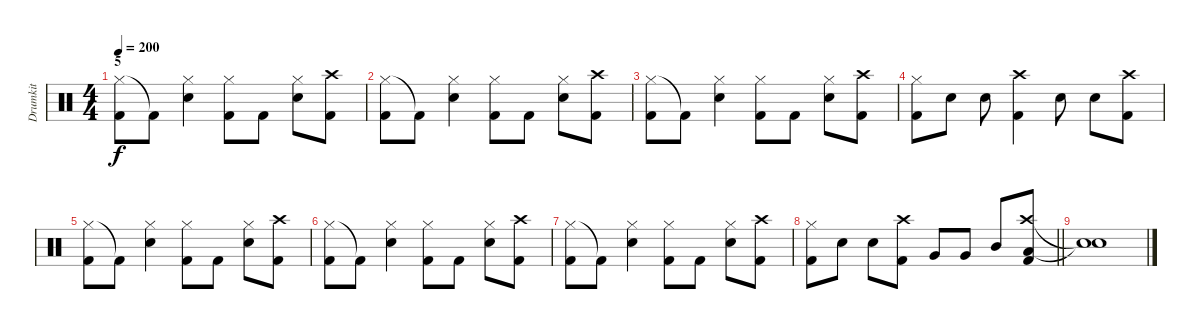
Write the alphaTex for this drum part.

\track ("Drumkit" "Drumkit") {instrument percussion}
\staff {score}
\articulation defaults
\ts (4 4)
\section ("" "5")
\tempo 200
\clef neutral
\ks c
("Hi-Hat (closed)" "Kick (hit) 2").8{dy f} "Kick (hit) 2"{t}.8 ("Hi-Hat (closed)" "Snare (hit) 2").4 ("Hi-Hat (closed)" "Kick (hit) 2").8 "Kick (hit) 2".8 ("Hi-Hat (closed)" "Snare (hit) 2").8 ("Crash high (hit)" "Kick (hit) 2").8 |
("Hi-Hat (closed)" "Kick (hit) 2").8 "Kick (hit) 2"{t}.8 ("Hi-Hat (closed)" "Snare (hit) 2").4 ("Hi-Hat (closed)" "Kick (hit) 2").8 "Kick (hit) 2".8 ("Hi-Hat (closed)" "Snare (hit) 2").8 ("Crash high (hit)" "Kick (hit) 2").8 |
("Hi-Hat (closed)" "Kick (hit) 2").8 "Kick (hit) 2"{t}.8 ("Hi-Hat (closed)" "Snare (hit) 2").4 ("Hi-Hat (closed)" "Kick (hit) 2").8 "Kick (hit) 2".8 ("Hi-Hat (closed)" "Snare (hit) 2").8 ("Crash high (hit)" "Kick (hit) 2").8 |
("Hi-Hat (closed)" "Kick (hit) 2").8 "Snare (hit) 2".8 "Snare (hit) 2".8 ("Crash high (hit)" "Kick (hit) 2").4 "Snare (hit) 2".8 "Snare (hit) 2".8 ("Crash high (hit)" "Kick (hit) 2").8 |
("Hi-Hat (closed)" "Kick (hit) 2").8 "Kick (hit) 2"{t}.8 ("Hi-Hat (closed)" "Snare (hit) 2").4 ("Hi-Hat (closed)" "Kick (hit) 2").8 "Kick (hit) 2".8 ("Hi-Hat (closed)" "Snare (hit) 2").8 ("Crash high (hit)" "Kick (hit) 2").8 |
("Hi-Hat (closed)" "Kick (hit) 2").8 "Kick (hit) 2"{t}.8 ("Hi-Hat (closed)" "Snare (hit) 2").4 ("Hi-Hat (closed)" "Kick (hit) 2").8 "Kick (hit) 2".8 ("Hi-Hat (closed)" "Snare (hit) 2").8 ("Crash high (hit)" "Kick (hit) 2").8 |
("Hi-Hat (closed)" "Kick (hit) 2").8 "Kick (hit) 2"{t}.8 ("Hi-Hat (closed)" "Snare (hit) 2").4 ("Hi-Hat (closed)" "Kick (hit) 2").8 "Kick (hit) 2".8 ("Hi-Hat (closed)" "Snare (hit) 2").8 ("Crash high (hit)" "Kick (hit) 2").8 |
\barLineRight lightlight
("Hi-Hat (closed)" "Kick (hit) 2").8 "Snare (hit) 2".8 "Snare (hit) 2".8 ("Crash high (hit)" "Kick (hit) 2").8 "Very Low Tom (hit)".8 "Very Low Tom (hit)".8 "Mid Tom (hit)".8 ("Crash high (hit)" "Low Tom (hit)" "Kick (hit) 2").8 |
("Snare (hit)"{t} "Snare (hit)"{t}).1
